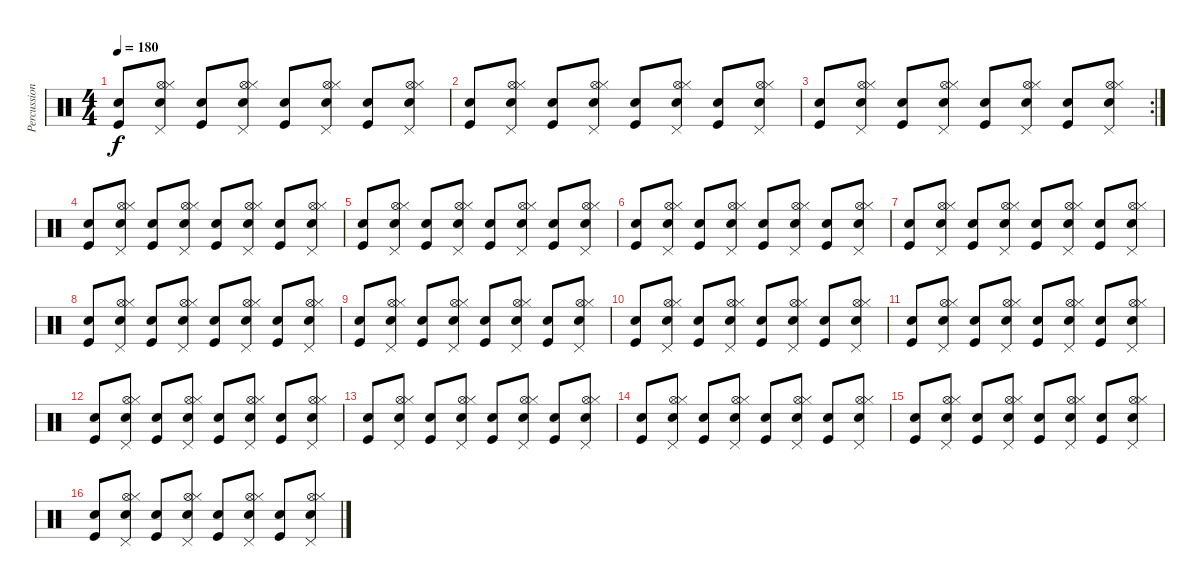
\track ("Percussions" "Percussion") {instrument percussion}
\staff {score}
\articulation defaults
\ts (4 4)
\tempo 180
\clef neutral
\ks c
("Snare (hit) 2" "Kick (hit)").8{dy f} ("Electric Snare (hit)" "Hi-Hat (open)" "Hi-Hat (closed)" "Pedal Hi-Hat (hit)").8 ("Snare (hit) 2" "Kick (hit)").8 ("Electric Snare (hit)" "Hi-Hat (open)" "Hi-Hat (closed)" "Pedal Hi-Hat (hit)").8 ("Snare (hit) 2" "Kick (hit)").8 ("Electric Snare (hit)" "Hi-Hat (open)" "Hi-Hat (closed)" "Pedal Hi-Hat (hit)").8 ("Snare (hit) 2" "Kick (hit)").8 ("Electric Snare (hit)" "Hi-Hat (open)" "Hi-Hat (closed)" "Pedal Hi-Hat (hit)").8 |
("Snare (hit) 2" "Kick (hit)").8 ("Electric Snare (hit)" "Hi-Hat (open)" "Hi-Hat (closed)" "Pedal Hi-Hat (hit)").8 ("Snare (hit) 2" "Kick (hit)").8 ("Electric Snare (hit)" "Hi-Hat (open)" "Hi-Hat (closed)" "Pedal Hi-Hat (hit)").8 ("Snare (hit) 2" "Kick (hit)").8 ("Electric Snare (hit)" "Hi-Hat (open)" "Hi-Hat (closed)" "Pedal Hi-Hat (hit)").8 ("Snare (hit) 2" "Kick (hit)").8 ("Electric Snare (hit)" "Hi-Hat (open)" "Hi-Hat (closed)" "Pedal Hi-Hat (hit)").8 |
\rc 2
("Snare (hit) 2" "Kick (hit)").8 ("Electric Snare (hit)" "Hi-Hat (open)" "Hi-Hat (closed)" "Pedal Hi-Hat (hit)").8 ("Snare (hit) 2" "Kick (hit)").8 ("Electric Snare (hit)" "Hi-Hat (open)" "Hi-Hat (closed)" "Pedal Hi-Hat (hit)").8 ("Snare (hit) 2" "Kick (hit)").8 ("Electric Snare (hit)" "Hi-Hat (open)" "Hi-Hat (closed)" "Pedal Hi-Hat (hit)").8 ("Snare (hit) 2" "Kick (hit)").8 ("Electric Snare (hit)" "Hi-Hat (open)" "Hi-Hat (closed)" "Pedal Hi-Hat (hit)").8 |
("Snare (hit) 2" "Kick (hit)").8 ("Electric Snare (hit)" "Hi-Hat (open)" "Hi-Hat (closed)" "Pedal Hi-Hat (hit)").8 ("Snare (hit) 2" "Kick (hit)").8 ("Electric Snare (hit)" "Hi-Hat (open)" "Hi-Hat (closed)" "Pedal Hi-Hat (hit)").8 ("Snare (hit) 2" "Kick (hit)").8 ("Electric Snare (hit)" "Hi-Hat (open)" "Hi-Hat (closed)" "Pedal Hi-Hat (hit)").8 ("Snare (hit) 2" "Kick (hit)").8 ("Electric Snare (hit)" "Hi-Hat (open)" "Hi-Hat (closed)" "Pedal Hi-Hat (hit)").8 |
("Snare (hit) 2" "Kick (hit)").8 ("Electric Snare (hit)" "Hi-Hat (open)" "Hi-Hat (closed)" "Pedal Hi-Hat (hit)").8 ("Snare (hit) 2" "Kick (hit)").8 ("Electric Snare (hit)" "Hi-Hat (open)" "Hi-Hat (closed)" "Pedal Hi-Hat (hit)").8 ("Snare (hit) 2" "Kick (hit)").8 ("Electric Snare (hit)" "Hi-Hat (open)" "Hi-Hat (closed)" "Pedal Hi-Hat (hit)").8 ("Snare (hit) 2" "Kick (hit)").8 ("Electric Snare (hit)" "Hi-Hat (open)" "Hi-Hat (closed)" "Pedal Hi-Hat (hit)").8 |
("Snare (hit) 2" "Kick (hit)").8 ("Electric Snare (hit)" "Hi-Hat (open)" "Hi-Hat (closed)" "Pedal Hi-Hat (hit)").8 ("Snare (hit) 2" "Kick (hit)").8 ("Electric Snare (hit)" "Hi-Hat (open)" "Hi-Hat (closed)" "Pedal Hi-Hat (hit)").8 ("Snare (hit) 2" "Kick (hit)").8 ("Electric Snare (hit)" "Hi-Hat (open)" "Hi-Hat (closed)" "Pedal Hi-Hat (hit)").8 ("Snare (hit) 2" "Kick (hit)").8 ("Electric Snare (hit)" "Hi-Hat (open)" "Hi-Hat (closed)" "Pedal Hi-Hat (hit)").8 |
("Snare (hit) 2" "Kick (hit)").8 ("Electric Snare (hit)" "Hi-Hat (open)" "Hi-Hat (closed)" "Pedal Hi-Hat (hit)").8 ("Snare (hit) 2" "Kick (hit)").8 ("Electric Snare (hit)" "Hi-Hat (open)" "Hi-Hat (closed)" "Pedal Hi-Hat (hit)").8 ("Snare (hit) 2" "Kick (hit)").8 ("Electric Snare (hit)" "Hi-Hat (open)" "Hi-Hat (closed)" "Pedal Hi-Hat (hit)").8 ("Snare (hit) 2" "Kick (hit)").8 ("Electric Snare (hit)" "Hi-Hat (open)" "Hi-Hat (closed)" "Pedal Hi-Hat (hit)").8 |
("Snare (hit) 2" "Kick (hit)").8 ("Electric Snare (hit)" "Hi-Hat (open)" "Hi-Hat (closed)" "Pedal Hi-Hat (hit)").8 ("Snare (hit) 2" "Kick (hit)").8 ("Electric Snare (hit)" "Hi-Hat (open)" "Hi-Hat (closed)" "Pedal Hi-Hat (hit)").8 ("Snare (hit) 2" "Kick (hit)").8 ("Electric Snare (hit)" "Hi-Hat (open)" "Hi-Hat (closed)" "Pedal Hi-Hat (hit)").8 ("Snare (hit) 2" "Kick (hit)").8 ("Electric Snare (hit)" "Hi-Hat (open)" "Hi-Hat (closed)" "Pedal Hi-Hat (hit)").8 |
("Snare (hit) 2" "Kick (hit)").8 ("Electric Snare (hit)" "Hi-Hat (open)" "Hi-Hat (closed)" "Pedal Hi-Hat (hit)").8 ("Snare (hit) 2" "Kick (hit)").8 ("Electric Snare (hit)" "Hi-Hat (open)" "Hi-Hat (closed)" "Pedal Hi-Hat (hit)").8 ("Snare (hit) 2" "Kick (hit)").8 ("Electric Snare (hit)" "Hi-Hat (open)" "Hi-Hat (closed)" "Pedal Hi-Hat (hit)").8 ("Snare (hit) 2" "Kick (hit)").8 ("Electric Snare (hit)" "Hi-Hat (open)" "Hi-Hat (closed)" "Pedal Hi-Hat (hit)").8 |
("Snare (hit) 2" "Kick (hit)").8 ("Electric Snare (hit)" "Hi-Hat (open)" "Hi-Hat (closed)" "Pedal Hi-Hat (hit)").8 ("Snare (hit) 2" "Kick (hit)").8 ("Electric Snare (hit)" "Hi-Hat (open)" "Hi-Hat (closed)" "Pedal Hi-Hat (hit)").8 ("Snare (hit) 2" "Kick (hit)").8 ("Electric Snare (hit)" "Hi-Hat (open)" "Hi-Hat (closed)" "Pedal Hi-Hat (hit)").8 ("Snare (hit) 2" "Kick (hit)").8 ("Electric Snare (hit)" "Hi-Hat (open)" "Hi-Hat (closed)" "Pedal Hi-Hat (hit)").8 |
("Snare (hit) 2" "Kick (hit)").8 ("Electric Snare (hit)" "Hi-Hat (open)" "Hi-Hat (closed)" "Pedal Hi-Hat (hit)").8 ("Snare (hit) 2" "Kick (hit)").8 ("Electric Snare (hit)" "Hi-Hat (open)" "Hi-Hat (closed)" "Pedal Hi-Hat (hit)").8 ("Snare (hit) 2" "Kick (hit)").8 ("Electric Snare (hit)" "Hi-Hat (open)" "Hi-Hat (closed)" "Pedal Hi-Hat (hit)").8 ("Snare (hit) 2" "Kick (hit)").8 ("Electric Snare (hit)" "Hi-Hat (open)" "Hi-Hat (closed)" "Pedal Hi-Hat (hit)").8 |
("Snare (hit) 2" "Kick (hit)").8 ("Electric Snare (hit)" "Hi-Hat (open)" "Hi-Hat (closed)" "Pedal Hi-Hat (hit)").8 ("Snare (hit) 2" "Kick (hit)").8 ("Electric Snare (hit)" "Hi-Hat (open)" "Hi-Hat (closed)" "Pedal Hi-Hat (hit)").8 ("Snare (hit) 2" "Kick (hit)").8 ("Electric Snare (hit)" "Hi-Hat (open)" "Hi-Hat (closed)" "Pedal Hi-Hat (hit)").8 ("Snare (hit) 2" "Kick (hit)").8 ("Electric Snare (hit)" "Hi-Hat (open)" "Hi-Hat (closed)" "Pedal Hi-Hat (hit)").8 |
("Snare (hit) 2" "Kick (hit)").8 ("Electric Snare (hit)" "Hi-Hat (open)" "Hi-Hat (closed)" "Pedal Hi-Hat (hit)").8 ("Snare (hit) 2" "Kick (hit)").8 ("Electric Snare (hit)" "Hi-Hat (open)" "Hi-Hat (closed)" "Pedal Hi-Hat (hit)").8 ("Snare (hit) 2" "Kick (hit)").8 ("Electric Snare (hit)" "Hi-Hat (open)" "Hi-Hat (closed)" "Pedal Hi-Hat (hit)").8 ("Snare (hit) 2" "Kick (hit)").8 ("Electric Snare (hit)" "Hi-Hat (open)" "Hi-Hat (closed)" "Pedal Hi-Hat (hit)").8 |
("Snare (hit) 2" "Kick (hit)").8 ("Electric Snare (hit)" "Hi-Hat (open)" "Hi-Hat (closed)" "Pedal Hi-Hat (hit)").8 ("Snare (hit) 2" "Kick (hit)").8 ("Electric Snare (hit)" "Hi-Hat (open)" "Hi-Hat (closed)" "Pedal Hi-Hat (hit)").8 ("Snare (hit) 2" "Kick (hit)").8 ("Electric Snare (hit)" "Hi-Hat (open)" "Hi-Hat (closed)" "Pedal Hi-Hat (hit)").8 ("Snare (hit) 2" "Kick (hit)").8 ("Electric Snare (hit)" "Hi-Hat (open)" "Hi-Hat (closed)" "Pedal Hi-Hat (hit)").8 |
("Snare (hit) 2" "Kick (hit)").8 ("Electric Snare (hit)" "Hi-Hat (open)" "Hi-Hat (closed)" "Pedal Hi-Hat (hit)").8 ("Snare (hit) 2" "Kick (hit)").8 ("Electric Snare (hit)" "Hi-Hat (open)" "Hi-Hat (closed)" "Pedal Hi-Hat (hit)").8 ("Snare (hit) 2" "Kick (hit)").8 ("Electric Snare (hit)" "Hi-Hat (open)" "Hi-Hat (closed)" "Pedal Hi-Hat (hit)").8 ("Snare (hit) 2" "Kick (hit)").8 ("Electric Snare (hit)" "Hi-Hat (open)" "Hi-Hat (closed)" "Pedal Hi-Hat (hit)").8 |
("Snare (hit) 2" "Kick (hit)").8 ("Electric Snare (hit)" "Hi-Hat (open)" "Hi-Hat (closed)" "Pedal Hi-Hat (hit)").8 ("Snare (hit) 2" "Kick (hit)").8 ("Electric Snare (hit)" "Hi-Hat (open)" "Hi-Hat (closed)" "Pedal Hi-Hat (hit)").8 ("Snare (hit) 2" "Kick (hit)").8 ("Electric Snare (hit)" "Hi-Hat (open)" "Hi-Hat (closed)" "Pedal Hi-Hat (hit)").8 ("Snare (hit) 2" "Kick (hit)").8 ("Electric Snare (hit)" "Hi-Hat (open)" "Hi-Hat (closed)" "Pedal Hi-Hat (hit)").8
